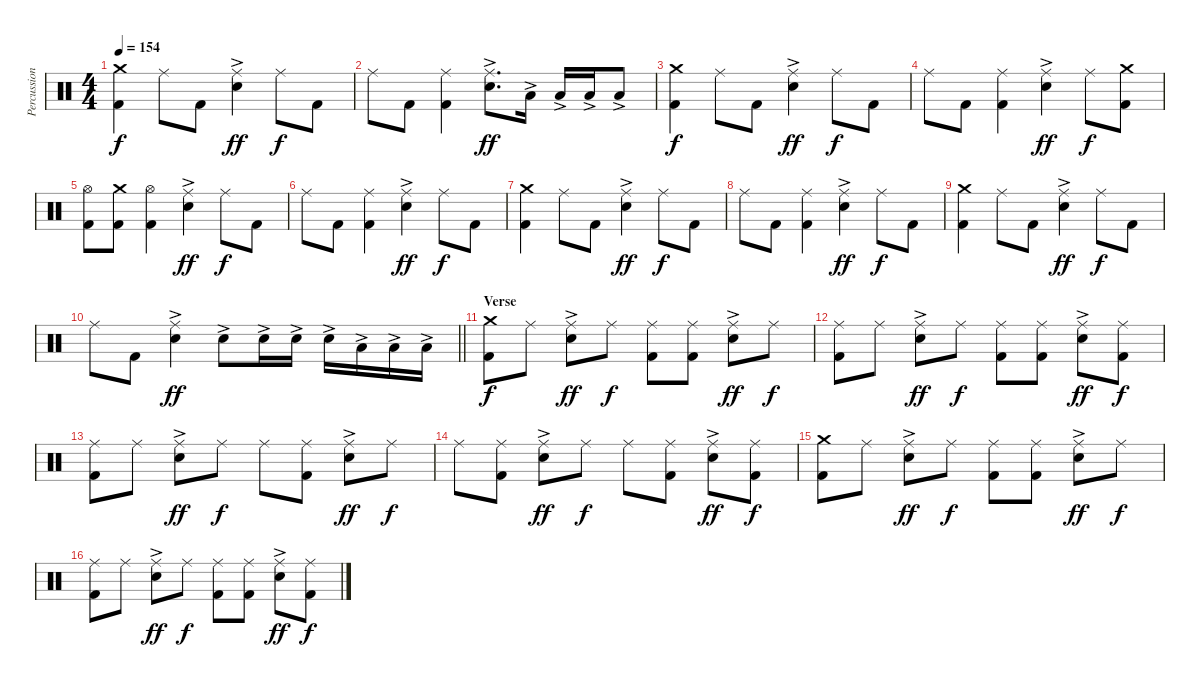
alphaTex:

\track ("Percussion" "Percussion") {instrument percussion}
\staff {score}
\articulation defaults
\ts (4 4)
\tempo 154
\clef neutral
\ks c
("Crash medium (hit)" "Kick (hit) 2").4{dy f} "Ride (middle)".8 "Kick (hit) 2".8 ("Ride (middle)" "Electric Snare (hit)"{ac}).4{dy ff} "Ride (middle)".8{dy f} "Kick (hit) 2".8 |
"Ride (middle)".8 "Kick (hit) 2".8 ("Ride (middle)" "Kick (hit) 2").4 ("Ride (middle)" "Electric Snare (hit)"{ac}).8{d dy ff} "Low Tom (hit)"{ac}.16 "Low Tom (hit)"{ac}.16 "Low Tom (hit)"{ac}.16 "Low Tom (hit)"{ac}.8 |
("Crash medium (hit)" "Kick (hit) 2").4{dy f} "Ride (middle)".8 "Kick (hit) 2".8 ("Ride (middle)" "Electric Snare (hit)"{ac}).4{dy ff} "Ride (middle)".8{dy f} "Kick (hit) 2".8 |
"Ride (middle)".8 "Kick (hit) 2".8 ("Ride (middle)" "Kick (hit) 2").4 ("Ride (middle)" "Electric Snare (hit)"{ac}).4{dy ff} "Ride (middle)".8{dy f} ("Crash medium (hit)" "Kick (hit) 2").8 |
("Hi-Hat (open)" "Kick (hit) 2").8 ("Crash medium (hit)" "Kick (hit) 2").8 ("Hi-Hat (open)" "Kick (hit) 2").4 ("Ride (middle)" "Electric Snare (hit)"{ac}).4{dy ff} "Ride (middle)".8{dy f} "Kick (hit) 2".8 |
"Ride (middle)".8 "Kick (hit) 2".8 ("Ride (middle)" "Kick (hit) 2").4 ("Ride (middle)" "Electric Snare (hit)"{ac}).4{dy ff} "Ride (middle)".8{dy f} "Kick (hit) 2".8 |
("Crash medium (hit)" "Kick (hit) 2").4 "Ride (middle)".8 "Kick (hit) 2".8 ("Ride (middle)" "Electric Snare (hit)"{ac}).4{dy ff} "Ride (middle)".8{dy f} "Kick (hit) 2".8 |
"Ride (middle)".8 "Kick (hit) 2".8 ("Ride (middle)" "Kick (hit) 2").4 ("Ride (middle)" "Electric Snare (hit)"{ac}).4{dy ff} "Ride (middle)".8{dy f} "Kick (hit) 2".8 |
("Crash medium (hit)" "Kick (hit) 2").4 "Ride (middle)".8 "Kick (hit) 2".8 ("Ride (middle)" "Electric Snare (hit)"{ac}).4{dy ff} "Ride (middle)".8{dy f} "Kick (hit) 2".8 |
\barLineRight lightlight "Ride (middle)".8 "Kick (hit) 2".8
("Ride (middle)" "Electric Snare (hit)"{ac}).4{dy ff} "Electric Snare (hit)"{ac}.8 "Electric Snare (hit)"{ac}.16 "Electric Snare (hit)"{ac}.16 "Electric Snare (hit)"{ac}.16 "Low Tom (hit)"{ac}.16 "Low Tom (hit)"{ac}.16 "Low Tom (hit)"{ac}.16 |
\section ("" "Verse")
("Crash medium (hit)" "Kick (hit) 2").8{dy f} "Ride (middle)".8 ("Ride (middle)" "Electric Snare (hit)"{ac}).8{dy ff} "Ride (middle)".8{dy f} ("Ride (middle)" "Kick (hit) 2").8 ("Ride (middle)" "Kick (hit) 2").8 ("Ride (middle)" "Electric Snare (hit)"{ac}).8{dy ff} "Ride (middle)".8{dy f} |
("Ride (middle)" "Kick (hit) 2").8 "Ride (middle)".8 ("Ride (middle)" "Electric Snare (hit)"{ac}).8{dy ff} "Ride (middle)".8{dy f} ("Ride (middle)" "Kick (hit) 2").8 ("Ride (middle)" "Kick (hit) 2").8 ("Ride (middle)" "Electric Snare (hit)"{ac}).8{dy ff} ("Ride (middle)" "Kick (hit) 2").8{dy f} |
("Ride (middle)" "Kick (hit) 2").8 "Ride (middle)".8 ("Ride (middle)" "Electric Snare (hit)"{ac}).8{dy ff} "Ride (middle)".8{dy f} "Ride (middle)".8 ("Ride (middle)" "Kick (hit) 2").8 ("Ride (middle)" "Electric Snare (hit)"{ac}).8{dy ff} "Ride (middle)".8{dy f} |
"Ride (middle)".8 ("Ride (middle)" "Kick (hit) 2").8 ("Ride (middle)" "Electric Snare (hit)"{ac}).8{dy ff} "Ride (middle)".8{dy f} "Ride (middle)".8 ("Ride (middle)" "Kick (hit) 2").8 ("Ride (middle)" "Electric Snare (hit)"{ac}).8{dy ff} ("Ride (middle)" "Kick (hit) 2").8{dy f} |
("Crash medium (hit)" "Kick (hit) 2").8 "Ride (middle)".8 ("Ride (middle)" "Electric Snare (hit)"{ac}).8{dy ff} "Ride (middle)".8{dy f} ("Ride (middle)" "Kick (hit) 2").8 ("Ride (middle)" "Kick (hit) 2").8 ("Ride (middle)" "Electric Snare (hit)"{ac}).8{dy ff} "Ride (middle)".8{dy f} |
("Ride (middle)" "Kick (hit) 2").8 "Ride (middle)".8 ("Ride (middle)" "Electric Snare (hit)"{ac}).8{dy ff} "Ride (middle)".8{dy f} ("Ride (middle)" "Kick (hit) 2").8 ("Ride (middle)" "Kick (hit) 2").8 ("Ride (middle)" "Electric Snare (hit)"{ac}).8{dy ff} ("Ride (middle)" "Kick (hit) 2").8{dy f}
